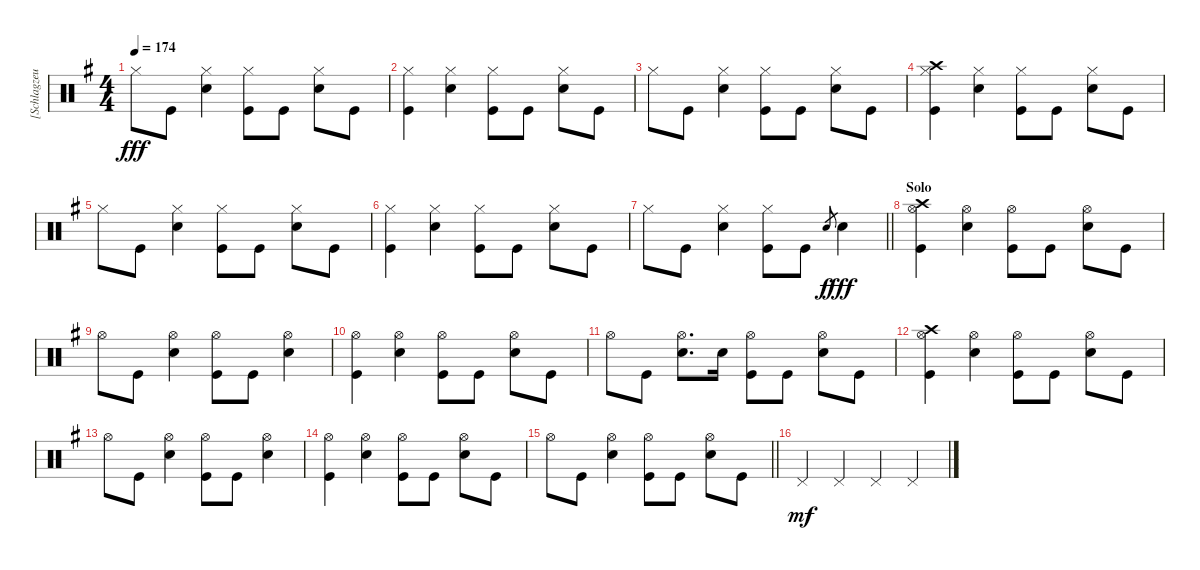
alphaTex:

\track ("[Schlagzeug]" "[Schlagzeu") {instrument percussion}
\staff {score}
\articulation defaults
\ts (4 4)
\tempo 174
\clef neutral
\ks g "Hi-Hat (closed)".8{dy fff} "Kick (hit)".8
("Hi-Hat (closed)" "Electric Snare (hit)").4 ("Hi-Hat (closed)" "Kick (hit)").8 "Kick (hit)".8 ("Hi-Hat (closed)" "Electric Snare (hit)").8 "Kick (hit)".8 |
("Hi-Hat (closed)" "Kick (hit)").4 ("Hi-Hat (closed)" "Electric Snare (hit)").4 ("Hi-Hat (closed)" "Kick (hit)").8 "Kick (hit)".8 ("Hi-Hat (closed)" "Electric Snare (hit)").8 "Kick (hit)".8 |
"Hi-Hat (closed)".8 "Kick (hit)".8 ("Hi-Hat (closed)" "Electric Snare (hit)").4 ("Hi-Hat (closed)" "Kick (hit)").8 "Kick (hit)".8 ("Hi-Hat (closed)" "Electric Snare (hit)").8 "Kick (hit)".8 |
("Crash high (hit)" "Hi-Hat (closed)" "Kick (hit)").4 ("Hi-Hat (closed)" "Electric Snare (hit)").4 ("Hi-Hat (closed)" "Kick (hit)").8 "Kick (hit)".8 ("Hi-Hat (closed)" "Electric Snare (hit)").8 "Kick (hit)".8 |
"Hi-Hat (closed)".8 "Kick (hit)".8 ("Hi-Hat (closed)" "Electric Snare (hit)").4 ("Hi-Hat (closed)" "Kick (hit)").8 "Kick (hit)".8 ("Hi-Hat (closed)" "Electric Snare (hit)").8 "Kick (hit)".8 |
("Hi-Hat (closed)" "Kick (hit)").4 ("Hi-Hat (closed)" "Electric Snare (hit)").4 ("Hi-Hat (closed)" "Kick (hit)").8 "Kick (hit)".8 ("Hi-Hat (closed)" "Electric Snare (hit)").8 "Kick (hit)".8 |
\barLineRight lightlight "Hi-Hat (closed)".8 "Kick (hit)".8
("Hi-Hat (closed)" "Electric Snare (hit)").4 ("Hi-Hat (closed)" "Kick (hit)").8 "Kick (hit)".8 "Electric Snare (hit)".8{gr dy f} "Electric Snare (hit)".4{dy fff} |
\section ("" "Solo")
("Crash high (hit)" "Hi-Hat (open)" "Kick (hit)").4 ("Hi-Hat (open)" "Electric Snare (hit)").4 ("Hi-Hat (open)" "Kick (hit)").8 "Kick (hit)".8 ("Hi-Hat (open)" "Electric Snare (hit)").8 "Kick (hit)".8 |
"Hi-Hat (open)".8 "Kick (hit)".8 ("Hi-Hat (open)" "Electric Snare (hit)").4 ("Hi-Hat (open)" "Kick (hit)").8 "Kick (hit)".8 ("Hi-Hat (open)" "Electric Snare (hit)").4 |
("Hi-Hat (open)" "Kick (hit)").4 ("Hi-Hat (open)" "Electric Snare (hit)").4 ("Hi-Hat (open)" "Kick (hit)").8 "Kick (hit)".8 ("Hi-Hat (open)" "Electric Snare (hit)").8 "Kick (hit)".8 |
"Hi-Hat (open)".8 "Kick (hit)".8 ("Hi-Hat (open)" "Electric Snare (hit)").8{d} "Electric Snare (hit)".16 ("Hi-Hat (open)" "Kick (hit)").8 "Kick (hit)".8 ("Hi-Hat (open)" "Electric Snare (hit)").8 "Kick (hit)".8 |
("Crash high (hit)" "Hi-Hat (open)" "Kick (hit)").4 ("Hi-Hat (open)" "Electric Snare (hit)").4 ("Hi-Hat (open)" "Kick (hit)").8 "Kick (hit)".8 ("Hi-Hat (open)" "Electric Snare (hit)").8 "Kick (hit)".8 |
"Hi-Hat (open)".8 "Kick (hit)".8 ("Hi-Hat (open)" "Electric Snare (hit)").4 ("Hi-Hat (open)" "Kick (hit)").8 "Kick (hit)".8 ("Hi-Hat (open)" "Electric Snare (hit)").4 |
("Hi-Hat (open)" "Kick (hit)").4 ("Hi-Hat (open)" "Electric Snare (hit)").4 ("Hi-Hat (open)" "Kick (hit)").8 "Kick (hit)".8 ("Hi-Hat (open)" "Electric Snare (hit)").8 "Kick (hit)".8 |
\barLineRight lightlight "Hi-Hat (open)".8 "Kick (hit)".8
("Hi-Hat (open)" "Electric Snare (hit)").4 ("Hi-Hat (open)" "Kick (hit)").8 "Kick (hit)".8 ("Hi-Hat (open)" "Electric Snare (hit)").8 "Kick (hit)".8 |
"Pedal Hi-Hat (hit)".4{dy mf} "Pedal Hi-Hat (hit)".4 "Pedal Hi-Hat (hit)".4 "Pedal Hi-Hat (hit)".4
